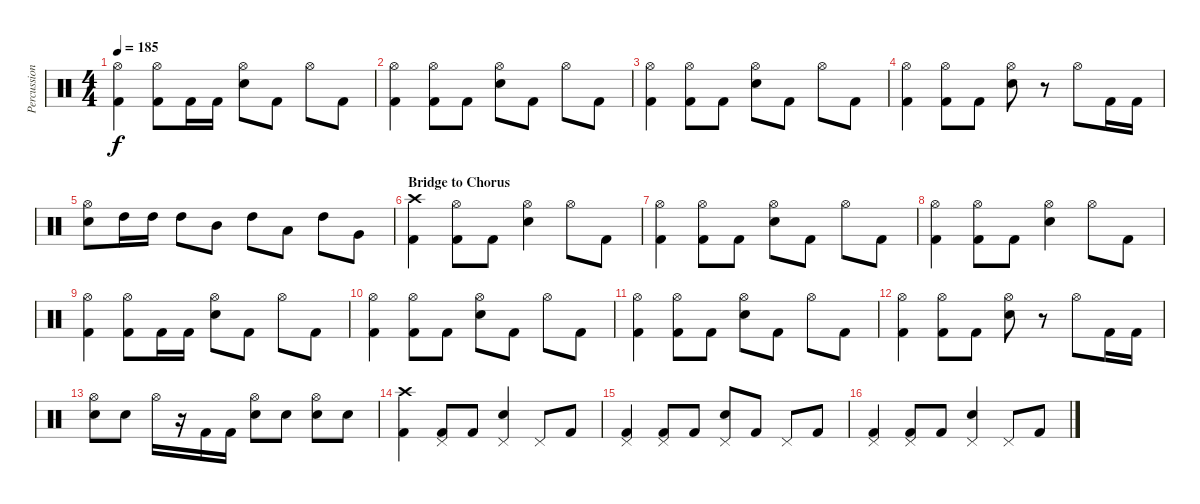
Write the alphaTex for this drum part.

\track ("Percussions" "Percussion") {instrument percussion}
\staff {score}
\articulation defaults
\ts (4 4)
\tempo 185
\clef neutral
\ks c
("Hi-Hat (open)" "Kick (hit) 2").4{dy f} ("Hi-Hat (open)" "Kick (hit) 2").8 "Kick (hit) 2".16 "Kick (hit) 2".16 ("Hi-Hat (open)" "Snare (hit) 2").8 "Kick (hit) 2".8 "Hi-Hat (open)".8 "Kick (hit) 2".8 |
("Hi-Hat (open)" "Kick (hit) 2").4 ("Hi-Hat (open)" "Kick (hit) 2").8 "Kick (hit) 2".8 ("Hi-Hat (open)" "Snare (hit) 2").8 "Kick (hit) 2".8 "Hi-Hat (open)".8 "Kick (hit) 2".8 |
("Hi-Hat (open)" "Kick (hit) 2").4 ("Hi-Hat (open)" "Kick (hit) 2").8 "Kick (hit) 2".8 ("Hi-Hat (open)" "Snare (hit) 2").8 "Kick (hit) 2".8 "Hi-Hat (open)".8 "Kick (hit) 2".8 |
("Hi-Hat (open)" "Kick (hit) 2").4 ("Hi-Hat (open)" "Kick (hit) 2").8 "Kick (hit) 2".8 ("Hi-Hat (open)" "Snare (hit) 2").8 r.8 "Hi-Hat (open)".8 "Kick (hit) 2".16 "Kick (hit) 2".16 |
("Hi-Hat (open)" "Snare (hit) 2").8 "High Tom (hit)".16 "High Tom (hit)".16 "High Tom (hit)".8 "Mid Tom (hit)".8 "High Tom (hit)".8 "Low Tom (hit)".8 "High Tom (hit)".8 "Very Low Tom (hit)".8 |
\section ("" "Bridge to Chorus")
("Crash high (hit)" "Kick (hit) 2").4 ("Hi-Hat (open)" "Kick (hit) 2").8 "Kick (hit) 2".8 ("Hi-Hat (open)" "Snare (hit) 2").4 "Hi-Hat (open)".8 "Kick (hit) 2".8 |
("Hi-Hat (open)" "Kick (hit) 2").4 ("Hi-Hat (open)" "Kick (hit) 2").8 "Kick (hit) 2".8 ("Hi-Hat (open)" "Snare (hit) 2").8 "Kick (hit) 2".8 "Hi-Hat (open)".8 "Kick (hit) 2".8 |
("Hi-Hat (open)" "Kick (hit) 2").4 ("Hi-Hat (open)" "Kick (hit) 2").8 "Kick (hit) 2".8 ("Hi-Hat (open)" "Snare (hit) 2").4 "Hi-Hat (open)".8 "Kick (hit) 2".8 |
("Hi-Hat (open)" "Kick (hit) 2").4 ("Hi-Hat (open)" "Kick (hit) 2").8 "Kick (hit) 2".16 "Kick (hit) 2".16 ("Hi-Hat (open)" "Snare (hit) 2").8 "Kick (hit) 2".8 "Hi-Hat (open)".8 "Kick (hit) 2".8 |
("Hi-Hat (open)" "Kick (hit) 2").4 ("Hi-Hat (open)" "Kick (hit) 2").8 "Kick (hit) 2".8 ("Hi-Hat (open)" "Snare (hit) 2").8 "Kick (hit) 2".8 "Hi-Hat (open)".8 "Kick (hit) 2".8 |
("Hi-Hat (open)" "Kick (hit) 2").4 ("Hi-Hat (open)" "Kick (hit) 2").8 "Kick (hit) 2".8 ("Hi-Hat (open)" "Snare (hit) 2").8 "Kick (hit) 2".8 "Hi-Hat (open)".8 "Kick (hit) 2".8 |
("Hi-Hat (open)" "Kick (hit) 2").4 ("Hi-Hat (open)" "Kick (hit) 2").8 "Kick (hit) 2".8 ("Hi-Hat (open)" "Snare (hit) 2").8 r.8 "Hi-Hat (open)".8 "Kick (hit) 2".16 "Kick (hit) 2".16 |
("Hi-Hat (open)" "Snare (hit) 2").8 "Snare (hit) 2".8 "Hi-Hat (open)".16 r.16 "Kick (hit) 2".16 "Kick (hit) 2".16 ("Hi-Hat (open)" "Snare (hit) 2").8 "Snare (hit) 2".8 ("Hi-Hat (open)" "Snare (hit) 2").8 "Snare (hit) 2".8 |
("Crash high (hit)" "Kick (hit) 2").4 ("Pedal Hi-Hat (hit)" "Kick (hit) 2").8 "Kick (hit) 2".8 ("Pedal Hi-Hat (hit)" "Snare (hit) 2").4 "Pedal Hi-Hat (hit)".8 "Kick (hit) 2".8 |
("Pedal Hi-Hat (hit)" "Kick (hit) 2").4 ("Pedal Hi-Hat (hit)" "Kick (hit) 2").8 "Kick (hit) 2".8 ("Pedal Hi-Hat (hit)" "Snare (hit) 2").8 "Kick (hit) 2".8 "Pedal Hi-Hat (hit)".8 "Kick (hit) 2".8 |
("Pedal Hi-Hat (hit)" "Kick (hit) 2").4 ("Pedal Hi-Hat (hit)" "Kick (hit) 2").8 "Kick (hit) 2".8 ("Pedal Hi-Hat (hit)" "Snare (hit) 2").4 "Pedal Hi-Hat (hit)".8 "Kick (hit) 2".8
